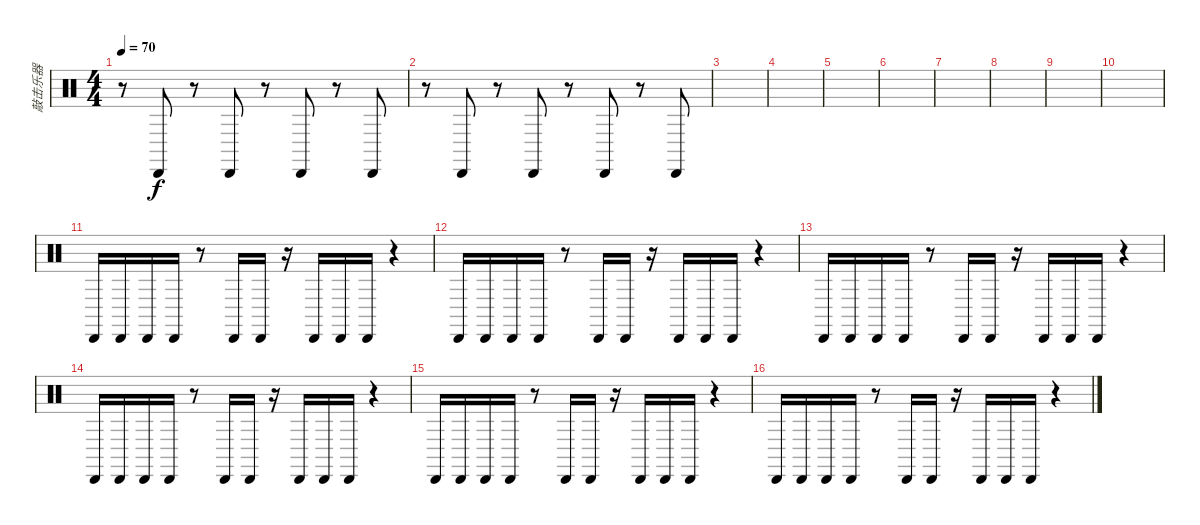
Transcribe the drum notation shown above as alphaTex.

\track ("敲击乐器" "敲击乐器") {instrument percussion}
\staff {score}
\articulation defaults
\ts (4 4)
\tempo 70
\clef neutral
\ks c
r.8{dy f} "Cabasa (hit)".8 r.8 "Cabasa (hit)".8 r.8 "Cabasa (hit)".8 r.8 "Cabasa (hit)".8 |
r.8 "Cabasa (hit)".8 r.8 "Cabasa (hit)".8 r.8 "Cabasa (hit)".8 r.8 "Cabasa (hit)".8 |
|
|
|
|
|
|
|
|
"Cabasa (hit)".16 "Cabasa (hit)".16 "Cabasa (hit)".16 "Cabasa (hit)".16 r.8 "Cabasa (hit)".16 "Cabasa (hit)".16 r.16 "Cabasa (hit)".16 "Cabasa (hit)".16 "Cabasa (hit)".16 r.4 |
"Cabasa (hit)".16 "Cabasa (hit)".16 "Cabasa (hit)".16 "Cabasa (hit)".16 r.8 "Cabasa (hit)".16 "Cabasa (hit)".16 r.16 "Cabasa (hit)".16 "Cabasa (hit)".16 "Cabasa (hit)".16 r.4 |
"Cabasa (hit)".16 "Cabasa (hit)".16 "Cabasa (hit)".16 "Cabasa (hit)".16 r.8 "Cabasa (hit)".16 "Cabasa (hit)".16 r.16 "Cabasa (hit)".16 "Cabasa (hit)".16 "Cabasa (hit)".16 r.4 |
"Cabasa (hit)".16 "Cabasa (hit)".16 "Cabasa (hit)".16 "Cabasa (hit)".16 r.8 "Cabasa (hit)".16 "Cabasa (hit)".16 r.16 "Cabasa (hit)".16 "Cabasa (hit)".16 "Cabasa (hit)".16 r.4 |
"Cabasa (hit)".16 "Cabasa (hit)".16 "Cabasa (hit)".16 "Cabasa (hit)".16 r.8 "Cabasa (hit)".16 "Cabasa (hit)".16 r.16 "Cabasa (hit)".16 "Cabasa (hit)".16 "Cabasa (hit)".16 r.4 |
"Cabasa (hit)".16 "Cabasa (hit)".16 "Cabasa (hit)".16 "Cabasa (hit)".16 r.8 "Cabasa (hit)".16 "Cabasa (hit)".16 r.16 "Cabasa (hit)".16 "Cabasa (hit)".16 "Cabasa (hit)".16 r.4
